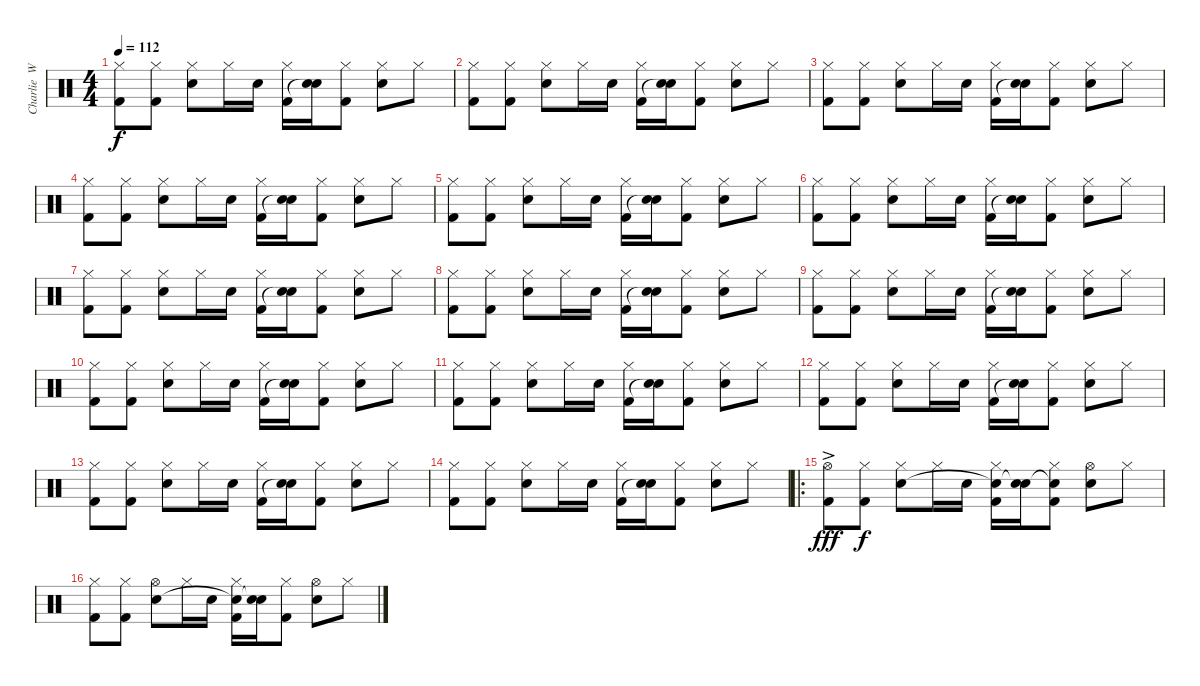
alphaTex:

\track ("Charlie  Watts" "Charlie  W") {instrument percussion}
\staff {score}
\articulation defaults
\ts (4 4)
\tempo 112
\clef neutral
\ks c
("Hi-Hat (closed)" "Kick (hit) 2").8{dy f} ("Hi-Hat (closed)" "Kick (hit) 2").8 ("Hi-Hat (closed)" "Snare (hit) 2").8 "Hi-Hat (closed)".16 "Snare (hit) 2".16 ("Hi-Hat (closed)" "Kick (hit) 2").16 ("Snare (hit) 2" "Snare (hit)"{t}).16 ("Hi-Hat (closed)" "Kick (hit) 2").8 ("Hi-Hat (closed)" "Snare (hit) 2").8 "Hi-Hat (closed)".8 |
("Hi-Hat (closed)" "Kick (hit) 2").8 ("Hi-Hat (closed)" "Kick (hit) 2").8 ("Hi-Hat (closed)" "Snare (hit) 2").8 "Hi-Hat (closed)".16 "Snare (hit) 2".16 ("Hi-Hat (closed)" "Kick (hit) 2").16 ("Snare (hit) 2" "Snare (hit)"{t}).16 ("Hi-Hat (closed)" "Kick (hit) 2").8 ("Hi-Hat (closed)" "Snare (hit) 2").8 "Hi-Hat (closed)".8 |
("Hi-Hat (closed)" "Kick (hit) 2").8 ("Hi-Hat (closed)" "Kick (hit) 2").8 ("Hi-Hat (closed)" "Snare (hit) 2").8 "Hi-Hat (closed)".16 "Snare (hit) 2".16 ("Hi-Hat (closed)" "Kick (hit) 2").16 ("Snare (hit) 2" "Snare (hit)"{t}).16 ("Hi-Hat (closed)" "Kick (hit) 2").8 ("Hi-Hat (closed)" "Snare (hit) 2").8 "Hi-Hat (closed)".8 |
("Hi-Hat (closed)" "Kick (hit) 2").8 ("Hi-Hat (closed)" "Kick (hit) 2").8 ("Hi-Hat (closed)" "Snare (hit) 2").8 "Hi-Hat (closed)".16 "Snare (hit) 2".16 ("Hi-Hat (closed)" "Kick (hit) 2").16 ("Snare (hit) 2" "Snare (hit)"{t}).16 ("Hi-Hat (closed)" "Kick (hit) 2").8 ("Hi-Hat (closed)" "Snare (hit) 2").8 "Hi-Hat (closed)".8 |
("Hi-Hat (closed)" "Kick (hit) 2").8 ("Hi-Hat (closed)" "Kick (hit) 2").8 ("Hi-Hat (closed)" "Snare (hit) 2").8 "Hi-Hat (closed)".16 "Snare (hit) 2".16 ("Hi-Hat (closed)" "Kick (hit) 2").16 ("Snare (hit) 2" "Snare (hit)"{t}).16 ("Hi-Hat (closed)" "Kick (hit) 2").8 ("Hi-Hat (closed)" "Snare (hit) 2").8 "Hi-Hat (closed)".8 |
("Hi-Hat (closed)" "Kick (hit) 2").8 ("Hi-Hat (closed)" "Kick (hit) 2").8 ("Hi-Hat (closed)" "Snare (hit) 2").8 "Hi-Hat (closed)".16 "Snare (hit) 2".16 ("Hi-Hat (closed)" "Kick (hit) 2").16 ("Snare (hit) 2" "Snare (hit)"{t}).16 ("Hi-Hat (closed)" "Kick (hit) 2").8 ("Hi-Hat (closed)" "Snare (hit) 2").8 "Hi-Hat (closed)".8 |
("Hi-Hat (closed)" "Kick (hit) 2").8 ("Hi-Hat (closed)" "Kick (hit) 2").8 ("Hi-Hat (closed)" "Snare (hit) 2").8 "Hi-Hat (closed)".16 "Snare (hit) 2".16 ("Hi-Hat (closed)" "Kick (hit) 2").16 ("Snare (hit) 2" "Snare (hit)"{t}).16 ("Hi-Hat (closed)" "Kick (hit) 2").8 ("Hi-Hat (closed)" "Snare (hit) 2").8 "Hi-Hat (closed)".8 |
("Hi-Hat (closed)" "Kick (hit) 2").8 ("Hi-Hat (closed)" "Kick (hit) 2").8 ("Hi-Hat (closed)" "Snare (hit) 2").8 "Hi-Hat (closed)".16 "Snare (hit) 2".16 ("Hi-Hat (closed)" "Kick (hit) 2").16 ("Snare (hit) 2" "Snare (hit)"{t}).16 ("Hi-Hat (closed)" "Kick (hit) 2").8 ("Hi-Hat (closed)" "Snare (hit) 2").8 "Hi-Hat (closed)".8 |
("Hi-Hat (closed)" "Kick (hit) 2").8 ("Hi-Hat (closed)" "Kick (hit) 2").8 ("Hi-Hat (closed)" "Snare (hit) 2").8 "Hi-Hat (closed)".16 "Snare (hit) 2".16 ("Hi-Hat (closed)" "Kick (hit) 2").16 ("Snare (hit) 2" "Snare (hit)"{t}).16 ("Hi-Hat (closed)" "Kick (hit) 2").8 ("Hi-Hat (closed)" "Snare (hit) 2").8 "Hi-Hat (closed)".8 |
("Hi-Hat (closed)" "Kick (hit) 2").8 ("Hi-Hat (closed)" "Kick (hit) 2").8 ("Hi-Hat (closed)" "Snare (hit) 2").8 "Hi-Hat (closed)".16 "Snare (hit) 2".16 ("Hi-Hat (closed)" "Kick (hit) 2").16 ("Snare (hit) 2" "Snare (hit)"{t}).16 ("Hi-Hat (closed)" "Kick (hit) 2").8 ("Hi-Hat (closed)" "Snare (hit) 2").8 "Hi-Hat (closed)".8 |
("Hi-Hat (closed)" "Kick (hit) 2").8 ("Hi-Hat (closed)" "Kick (hit) 2").8 ("Hi-Hat (closed)" "Snare (hit) 2").8 "Hi-Hat (closed)".16 "Snare (hit) 2".16 ("Hi-Hat (closed)" "Kick (hit) 2").16 ("Snare (hit) 2" "Snare (hit)"{t}).16 ("Hi-Hat (closed)" "Kick (hit) 2").8 ("Hi-Hat (closed)" "Snare (hit) 2").8 "Hi-Hat (closed)".8 |
("Hi-Hat (closed)" "Kick (hit) 2").8 ("Hi-Hat (closed)" "Kick (hit) 2").8 ("Hi-Hat (closed)" "Snare (hit) 2").8 "Hi-Hat (closed)".16 "Snare (hit) 2".16 ("Hi-Hat (closed)" "Kick (hit) 2").16 ("Snare (hit) 2" "Snare (hit)"{t}).16 ("Hi-Hat (closed)" "Kick (hit) 2").8 ("Hi-Hat (closed)" "Snare (hit) 2").8 "Hi-Hat (closed)".8 |
("Hi-Hat (closed)" "Kick (hit) 2").8 ("Hi-Hat (closed)" "Kick (hit) 2").8 ("Hi-Hat (closed)" "Snare (hit) 2").8 "Hi-Hat (closed)".16 "Snare (hit) 2".16 ("Hi-Hat (closed)" "Kick (hit) 2").16 ("Snare (hit) 2" "Snare (hit)"{t}).16 ("Hi-Hat (closed)" "Kick (hit) 2").8 ("Hi-Hat (closed)" "Snare (hit) 2").8 "Hi-Hat (closed)".8 |
("Hi-Hat (closed)" "Kick (hit) 2").8 ("Hi-Hat (closed)" "Kick (hit) 2").8 ("Hi-Hat (closed)" "Snare (hit) 2").8 "Hi-Hat (closed)".16 "Snare (hit) 2".16 ("Hi-Hat (closed)" "Kick (hit) 2").16 ("Snare (hit) 2" "Snare (hit)"{t}).16 ("Hi-Hat (closed)" "Kick (hit) 2").8 ("Hi-Hat (closed)" "Snare (hit) 2").8 "Hi-Hat (closed)".8 |
\ro
("Hi-Hat (open)"{ac} "Kick (hit) 2"{ac}).8{dy fff} ("Hi-Hat (closed)" "Kick (hit) 2").8{dy f} ("Hi-Hat (closed)" "Snare (hit) 2").8 "Hi-Hat (closed)".16 "Snare (hit) 2".16 ("Hi-Hat (closed)" "Snare (hit)"{t} "Kick (hit) 2").16 ("Snare (hit) 2" "Snare (hit)"{t}).16 ("Hi-Hat (closed)" "Snare (hit)"{t} "Kick (hit) 2").8 ("Hi-Hat (open)" "Snare (hit) 2").8 "Hi-Hat (closed)".8 |
("Hi-Hat (closed)" "Kick (hit) 2").8 ("Hi-Hat (closed)" "Kick (hit) 2").8 ("Hi-Hat (open)" "Snare (hit) 2").8 "Hi-Hat (closed)".16 "Snare (hit) 2".16 ("Hi-Hat (closed)" "Snare (hit)"{t} "Kick (hit) 2").16 ("Snare (hit) 2" "Snare (hit)"{t}).16 ("Hi-Hat (closed)" "Kick (hit) 2").8 ("Hi-Hat (open)" "Snare (hit) 2").8 "Hi-Hat (closed)".8
